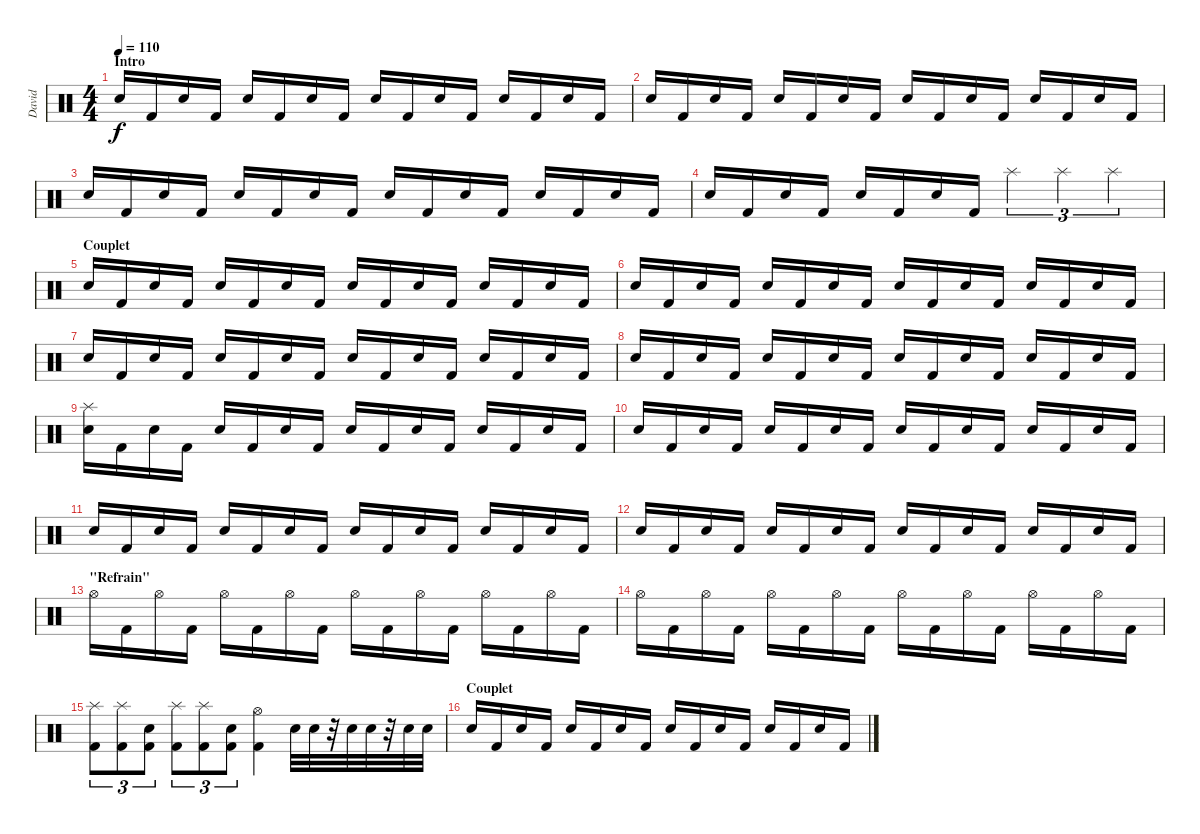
\track ("David" "David") {instrument percussion}
\staff {score}
\articulation defaults
\ts (4 4)
\section ("" "Intro")
\tempo 110
\clef neutral
\ks c "Electric Snare (hit)".16{dy f} "Kick (hit) 2".16 "Electric Snare (hit)".16 "Kick (hit) 2".16 "Electric Snare (hit)".16 "Kick (hit) 2".16 "Electric Snare (hit)".16 "Kick (hit) 2".16 "Electric Snare (hit)".16 "Kick (hit) 2".16 "Electric Snare (hit)".16 "Kick (hit) 2".16 "Electric Snare (hit)".16 "Kick (hit) 2".16 "Electric Snare (hit)".16 "Kick (hit) 2".16
|
"Electric Snare (hit)".16 "Kick (hit) 2".16 "Electric Snare (hit)".16 "Kick (hit) 2".16 "Electric Snare (hit)".16 "Kick (hit) 2".16 "Electric Snare (hit)".16 "Kick (hit) 2".16 "Electric Snare (hit)".16 "Kick (hit) 2".16 "Electric Snare (hit)".16 "Kick (hit) 2".16 "Electric Snare (hit)".16 "Kick (hit) 2".16 "Electric Snare (hit)".16 "Kick (hit) 2".16 |
"Electric Snare (hit)".16 "Kick (hit) 2".16 "Electric Snare (hit)".16 "Kick (hit) 2".16 "Electric Snare (hit)".16 "Kick (hit) 2".16 "Electric Snare (hit)".16 "Kick (hit) 2".16 "Electric Snare (hit)".16 "Kick (hit) 2".16 "Electric Snare (hit)".16 "Kick (hit) 2".16 "Electric Snare (hit)".16 "Kick (hit) 2".16 "Electric Snare (hit)".16 "Kick (hit) 2".16 |
"Electric Snare (hit)".16 "Kick (hit) 2".16 "Electric Snare (hit)".16 "Kick (hit) 2".16 "Electric Snare (hit)".16 "Kick (hit) 2".16 "Electric Snare (hit)".16 "Kick (hit) 2".16 "Splash (hit)".4{tu (3 2)} "Splash (hit)".4{tu (3 2)} "Splash (hit)".4{tu (3 2)} |
\section ("" "Couplet")
"Electric Snare (hit)".16 "Kick (hit) 2".16 "Electric Snare (hit)".16 "Kick (hit) 2".16 "Electric Snare (hit)".16 "Kick (hit) 2".16 "Electric Snare (hit)".16 "Kick (hit) 2".16 "Electric Snare (hit)".16 "Kick (hit) 2".16 "Electric Snare (hit)".16 "Kick (hit) 2".16 "Electric Snare (hit)".16 "Kick (hit) 2".16 "Electric Snare (hit)".16 "Kick (hit) 2".16 |
"Electric Snare (hit)".16 "Kick (hit) 2".16 "Electric Snare (hit)".16 "Kick (hit) 2".16 "Electric Snare (hit)".16 "Kick (hit) 2".16 "Electric Snare (hit)".16 "Kick (hit) 2".16 "Electric Snare (hit)".16 "Kick (hit) 2".16 "Electric Snare (hit)".16 "Kick (hit) 2".16 "Electric Snare (hit)".16 "Kick (hit) 2".16 "Electric Snare (hit)".16 "Kick (hit) 2".16 |
"Electric Snare (hit)".16 "Kick (hit) 2".16 "Electric Snare (hit)".16 "Kick (hit) 2".16 "Electric Snare (hit)".16 "Kick (hit) 2".16 "Electric Snare (hit)".16 "Kick (hit) 2".16 "Electric Snare (hit)".16 "Kick (hit) 2".16 "Electric Snare (hit)".16 "Kick (hit) 2".16 "Electric Snare (hit)".16 "Kick (hit) 2".16 "Electric Snare (hit)".16 "Kick (hit) 2".16 |
"Electric Snare (hit)".16 "Kick (hit) 2".16 "Electric Snare (hit)".16 "Kick (hit) 2".16 "Electric Snare (hit)".16 "Kick (hit) 2".16 "Electric Snare (hit)".16 "Kick (hit) 2".16 "Electric Snare (hit)".16 "Kick (hit) 2".16 "Electric Snare (hit)".16 "Kick (hit) 2".16 "Electric Snare (hit)".16 "Kick (hit) 2".16 "Electric Snare (hit)".16 "Kick (hit) 2".16 |
("Splash (hit)" "Electric Snare (hit)").16 "Kick (hit) 2".16 "Electric Snare (hit)".16 "Kick (hit) 2".16 "Electric Snare (hit)".16 "Kick (hit) 2".16 "Electric Snare (hit)".16 "Kick (hit) 2".16 "Electric Snare (hit)".16 "Kick (hit) 2".16 "Electric Snare (hit)".16 "Kick (hit) 2".16 "Electric Snare (hit)".16 "Kick (hit) 2".16 "Electric Snare (hit)".16 "Kick (hit) 2".16 |
"Electric Snare (hit)".16 "Kick (hit) 2".16 "Electric Snare (hit)".16 "Kick (hit) 2".16 "Electric Snare (hit)".16 "Kick (hit) 2".16 "Electric Snare (hit)".16 "Kick (hit) 2".16 "Electric Snare (hit)".16 "Kick (hit) 2".16 "Electric Snare (hit)".16 "Kick (hit) 2".16 "Electric Snare (hit)".16 "Kick (hit) 2".16 "Electric Snare (hit)".16 "Kick (hit) 2".16 |
"Electric Snare (hit)".16 "Kick (hit) 2".16 "Electric Snare (hit)".16 "Kick (hit) 2".16 "Electric Snare (hit)".16 "Kick (hit) 2".16 "Electric Snare (hit)".16 "Kick (hit) 2".16 "Electric Snare (hit)".16 "Kick (hit) 2".16 "Electric Snare (hit)".16 "Kick (hit) 2".16 "Electric Snare (hit)".16 "Kick (hit) 2".16 "Electric Snare (hit)".16 "Kick (hit) 2".16 |
"Electric Snare (hit)".16 "Kick (hit) 2".16 "Electric Snare (hit)".16 "Kick (hit) 2".16 "Electric Snare (hit)".16 "Kick (hit) 2".16 "Electric Snare (hit)".16 "Kick (hit) 2".16 "Electric Snare (hit)".16 "Kick (hit) 2".16 "Electric Snare (hit)".16 "Kick (hit) 2".16 "Electric Snare (hit)".16 "Kick (hit) 2".16 "Electric Snare (hit)".16 "Kick (hit) 2".16 |
\section ("" "\"Refrain\"")
"Hi-Hat (open)".16 "Kick (hit) 2".16 "Hi-Hat (open)".16 "Kick (hit) 2".16 "Hi-Hat (open)".16 "Kick (hit) 2".16 "Hi-Hat (open)".16 "Kick (hit) 2".16 "Hi-Hat (open)".16 "Kick (hit) 2".16 "Hi-Hat (open)".16 "Kick (hit) 2".16 "Hi-Hat (open)".16 "Kick (hit) 2".16 "Hi-Hat (open)".16 "Kick (hit) 2".16 |
"Hi-Hat (open)".16 "Kick (hit) 2".16 "Hi-Hat (open)".16 "Kick (hit) 2".16 "Hi-Hat (open)".16 "Kick (hit) 2".16 "Hi-Hat (open)".16 "Kick (hit) 2".16 "Hi-Hat (open)".16 "Kick (hit) 2".16 "Hi-Hat (open)".16 "Kick (hit) 2".16 "Hi-Hat (open)".16 "Kick (hit) 2".16 "Hi-Hat (open)".16 "Kick (hit) 2".16 |
("Splash (hit)" "Kick (hit) 2").8{tu (3 2)} ("Splash (hit)" "Kick (hit) 2").8{tu (3 2)} ("Electric Snare (hit)" "Kick (hit) 2").8{tu (3 2)} ("Splash (hit)" "Kick (hit) 2").8{tu (3 2)} ("Splash (hit)" "Kick (hit) 2").8{tu (3 2)} ("Electric Snare (hit)" "Kick (hit) 2").8{tu (3 2)} ("Hi-Hat (open)" "Kick (hit) 2").4 "Electric Snare (hit)".32 "Electric Snare (hit)".32 r.32 "Electric Snare (hit)".32 "Electric Snare (hit)".32 r.32 "Electric Snare (hit)".32 "Electric Snare (hit)".32 |
\section ("" "Couplet")
"Electric Snare (hit)".16 "Kick (hit) 2".16 "Electric Snare (hit)".16 "Kick (hit) 2".16 "Electric Snare (hit)".16 "Kick (hit) 2".16 "Electric Snare (hit)".16 "Kick (hit) 2".16 "Electric Snare (hit)".16 "Kick (hit) 2".16 "Electric Snare (hit)".16 "Kick (hit) 2".16 "Electric Snare (hit)".16 "Kick (hit) 2".16 "Electric Snare (hit)".16 "Kick (hit) 2".16
